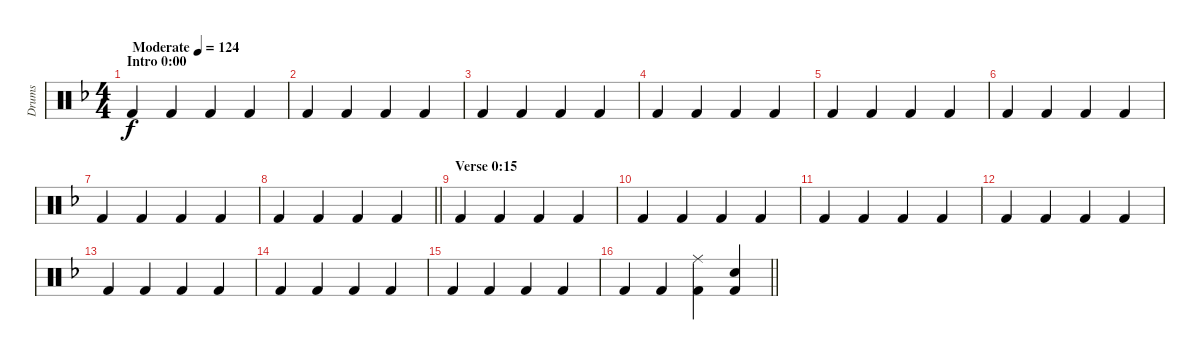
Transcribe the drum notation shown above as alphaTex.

\track ("Drums" "Drums") {instrument percussion}
\staff {score}
\articulation defaults
\ts (4 4)
\section ("" "Intro 0:00")
\tempo (124 "Moderate")
\clef neutral
\ks f "Kick (hit) 2".4{dy f} "Kick (hit) 2".4 "Kick (hit) 2".4 "Kick (hit) 2".4
|
"Kick (hit) 2".4 "Kick (hit) 2".4 "Kick (hit) 2".4 "Kick (hit) 2".4 |
"Kick (hit) 2".4 "Kick (hit) 2".4 "Kick (hit) 2".4 "Kick (hit) 2".4 |
"Kick (hit) 2".4 "Kick (hit) 2".4 "Kick (hit) 2".4 "Kick (hit) 2".4 |
"Kick (hit) 2".4 "Kick (hit) 2".4 "Kick (hit) 2".4 "Kick (hit) 2".4 |
"Kick (hit) 2".4 "Kick (hit) 2".4 "Kick (hit) 2".4 "Kick (hit) 2".4 |
"Kick (hit) 2".4 "Kick (hit) 2".4 "Kick (hit) 2".4 "Kick (hit) 2".4 |
\barLineRight lightlight "Kick (hit) 2".4 "Kick (hit) 2".4 "Kick (hit) 2".4 "Kick (hit) 2".4
|
\section ("" "Verse 0:15")
"Kick (hit) 2".4 "Kick (hit) 2".4 "Kick (hit) 2".4 "Kick (hit) 2".4 |
"Kick (hit) 2".4 "Kick (hit) 2".4 "Kick (hit) 2".4 "Kick (hit) 2".4 |
"Kick (hit) 2".4 "Kick (hit) 2".4 "Kick (hit) 2".4 "Kick (hit) 2".4 |
"Kick (hit) 2".4 "Kick (hit) 2".4 "Kick (hit) 2".4 "Kick (hit) 2".4 |
"Kick (hit) 2".4 "Kick (hit) 2".4 "Kick (hit) 2".4 "Kick (hit) 2".4 |
"Kick (hit) 2".4 "Kick (hit) 2".4 "Kick (hit) 2".4 "Kick (hit) 2".4 |
"Kick (hit) 2".4 "Kick (hit) 2".4 "Kick (hit) 2".4 "Kick (hit) 2".4 |
\barLineRight lightlight "Kick (hit) 2".4 "Kick (hit) 2".4
("Ride (middle)" "Kick (hit) 2").4 ("Snare (hit) 2" "Kick (hit) 2").4
